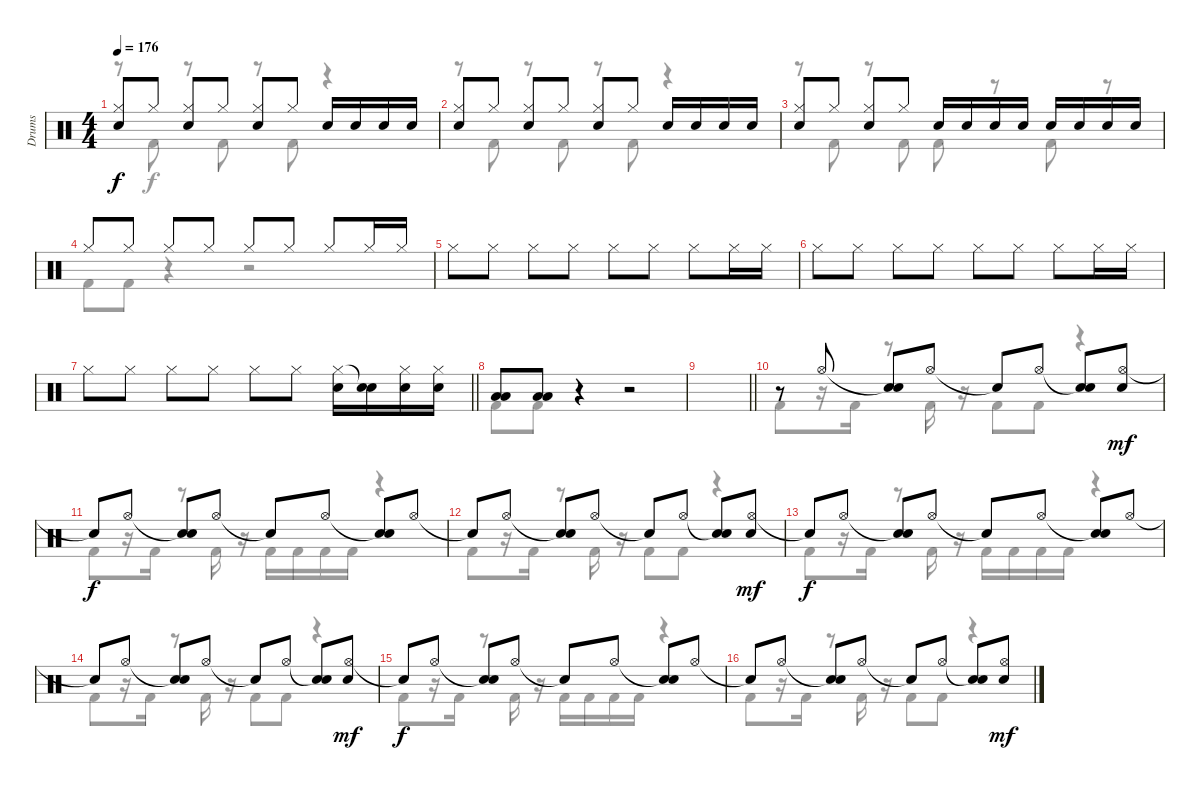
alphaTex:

\track ("Drums" "Drums") {instrument percussion}
\staff {score}
\articulation defaults
\voice
\ts (4 4)
\tempo 176
\clef neutral
\ks c
("Hi-Hat (closed)" "Snare (hit) 2").8{dy f} "Hi-Hat (closed)".8 ("Hi-Hat (closed)" "Snare (hit) 2").8 "Hi-Hat (closed)".8 ("Hi-Hat (closed)" "Snare (hit) 2").8 "Hi-Hat (closed)".8 "Snare (hit) 2".16 "Snare (hit) 2".16 "Snare (hit) 2".16 "Snare (hit) 2".16 |
("Hi-Hat (closed)" "Snare (hit) 2").8 "Hi-Hat (closed)".8 ("Hi-Hat (closed)" "Snare (hit) 2").8 "Hi-Hat (closed)".8 ("Hi-Hat (closed)" "Snare (hit) 2").8 "Hi-Hat (closed)".8 "Snare (hit) 2".16 "Snare (hit) 2".16 "Snare (hit) 2".16 "Snare (hit) 2".16 |
("Hi-Hat (closed)" "Snare (hit) 2").8 "Hi-Hat (closed)".8 ("Hi-Hat (closed)" "Snare (hit) 2").8 "Hi-Hat (closed)".8 "Snare (hit) 2".16 "Snare (hit) 2".16 "Snare (hit) 2".16 "Snare (hit) 2".16 "Snare (hit) 2".16 "Snare (hit) 2".16 "Snare (hit) 2".16 "Snare (hit) 2".16 |
"Hi-Hat (closed)".8 "Hi-Hat (closed)".8 "Hi-Hat (closed)".8 "Hi-Hat (closed)".8 "Hi-Hat (closed)".8 "Hi-Hat (closed)".8 "Hi-Hat (closed)".8 "Hi-Hat (closed)".16 "Hi-Hat (closed)".16 |
"Hi-Hat (closed)".8 "Hi-Hat (closed)".8 "Hi-Hat (closed)".8 "Hi-Hat (closed)".8 "Hi-Hat (closed)".8 "Hi-Hat (closed)".8 "Hi-Hat (closed)".8 "Hi-Hat (closed)".16 "Hi-Hat (closed)".16 |
"Hi-Hat (closed)".8 "Hi-Hat (closed)".8 "Hi-Hat (closed)".8 "Hi-Hat (closed)".8 "Hi-Hat (closed)".8 "Hi-Hat (closed)".8 "Hi-Hat (closed)".8 "Hi-Hat (closed)".16 "Hi-Hat (closed)".16 |
\barLineRight lightlight "Hi-Hat (closed)".8 "Hi-Hat (closed)".8 "Hi-Hat (closed)".8 "Hi-Hat (closed)".8 "Hi-Hat (closed)".8 "Hi-Hat (closed)".8
("Hi-Hat (closed)" "Snare (hit) 2").16 ("Snare (hit)"{t} "Snare (hit) 2").16 ("Hi-Hat (closed)" "Snare (hit) 2").16 ("Hi-Hat (closed)" "Snare (hit) 2").16 |
("Low Tom (hit)" "Low Floor Tom (hit)").8 ("Low Tom (hit)" "Low Floor Tom (hit)").8 r.4 r.2 |
\barLineRight lightlight
|
r.8 "Hi-Hat (open)".8 ("Snare (hit)"{t} "Snare (hit) 2").8 "Hi-Hat (open)".8 "Snare (hit)"{t}.8 "Hi-Hat (open)".8 ("Snare (hit)"{t} "Snare (hit) 2").8 ("Hi-Hat (open)" "Electric Snare (hit)").8{dy mf} |
"Snare (hit)"{t}.8{dy f} "Hi-Hat (open)".8 ("Snare (hit)"{t} "Snare (hit) 2").8 "Hi-Hat (open)".8 "Snare (hit)"{t}.8 "Hi-Hat (open)".8 ("Snare (hit)"{t} "Snare (hit) 2").8 "Hi-Hat (open)".8 |
"Snare (hit)"{t}.8 "Hi-Hat (open)".8 ("Snare (hit)"{t} "Snare (hit) 2").8 "Hi-Hat (open)".8 "Snare (hit)"{t}.8 "Hi-Hat (open)".8 ("Snare (hit)"{t} "Snare (hit) 2").8 ("Hi-Hat (open)" "Electric Snare (hit)").8{dy mf} |
"Snare (hit)"{t}.8{dy f} "Hi-Hat (open)".8 ("Snare (hit)"{t} "Snare (hit) 2").8 "Hi-Hat (open)".8 "Snare (hit)"{t}.8 "Hi-Hat (open)".8 ("Snare (hit)"{t} "Snare (hit) 2").8 "Hi-Hat (open)".8 |
"Snare (hit)"{t}.8 "Hi-Hat (open)".8 ("Snare (hit)"{t} "Snare (hit) 2").8 "Hi-Hat (open)".8 "Snare (hit)"{t}.8 "Hi-Hat (open)".8 ("Snare (hit)"{t} "Snare (hit) 2").8 ("Hi-Hat (open)" "Electric Snare (hit)").8{dy mf} |
"Snare (hit)"{t}.8{dy f} "Hi-Hat (open)".8 ("Snare (hit)"{t} "Snare (hit) 2").8 "Hi-Hat (open)".8 "Snare (hit)"{t}.8 "Hi-Hat (open)".8 ("Snare (hit)"{t} "Snare (hit) 2").8 "Hi-Hat (open)".8 |
"Snare (hit)"{t}.8 "Hi-Hat (open)".8 ("Snare (hit)"{t} "Snare (hit) 2").8 "Hi-Hat (open)".8 "Snare (hit)"{t}.8 "Hi-Hat (open)".8 ("Snare (hit)"{t} "Snare (hit) 2").8 ("Hi-Hat (open)" "Electric Snare (hit)").8{dy mf}
\voice
\clef neutral
\ottava regular
\simile none
\ks c
r.8{dy f} "Kick (hit) 2".8 r.8 "Kick (hit) 2".8 r.8 "Kick (hit) 2".8 r.4 |
r.8 "Kick (hit) 2".8 r.8 "Kick (hit) 2".8 r.8 "Kick (hit) 2".8 r.4 |
r.8 "Kick (hit) 2".8 r.8 "Kick (hit) 2".8 "Kick (hit) 2".8 r.8 "Kick (hit) 2".8 r.8 |
"Kick (hit) 2".8 "Kick (hit) 2".8 r.4 r.2 |
|
|
\barLineRight lightlight
|
"Kick (hit) 2".8 "Kick (hit) 2".8 r.4 r.2 |
\barLineRight lightlight
|
"Kick (hit) 2".8 r.16 "Kick (hit) 2".16 r.8 "Kick (hit) 2".16 r.16 "Kick (hit) 2".8 "Kick (hit) 2".8 r.4 |
"Kick (hit) 2".8 r.16 "Kick (hit) 2".16 r.8 "Kick (hit) 2".16 r.16 "Kick (hit) 2".16 "Kick (hit) 2".16 "Kick (hit) 2".16 "Kick (hit) 2".16 r.4 |
"Kick (hit) 2".8 r.16 "Kick (hit) 2".16 r.8 "Kick (hit) 2".16 r.16 "Kick (hit) 2".8 "Kick (hit) 2".8 r.4 |
"Kick (hit) 2".8 r.16 "Kick (hit) 2".16 r.8 "Kick (hit) 2".16 r.16 "Kick (hit) 2".16 "Kick (hit) 2".16 "Kick (hit) 2".16 "Kick (hit) 2".16 r.4 |
"Kick (hit) 2".8 r.16 "Kick (hit) 2".16 r.8 "Kick (hit) 2".16 r.16 "Kick (hit) 2".8 "Kick (hit) 2".8 r.4 |
"Kick (hit) 2".8 r.16 "Kick (hit) 2".16 r.8 "Kick (hit) 2".16 r.16 "Kick (hit) 2".16 "Kick (hit) 2".16 "Kick (hit) 2".16 "Kick (hit) 2".16 r.4 |
"Kick (hit) 2".8 r.16 "Kick (hit) 2".16 r.8 "Kick (hit) 2".16 r.16 "Kick (hit) 2".8 "Kick (hit) 2".8 r.4
